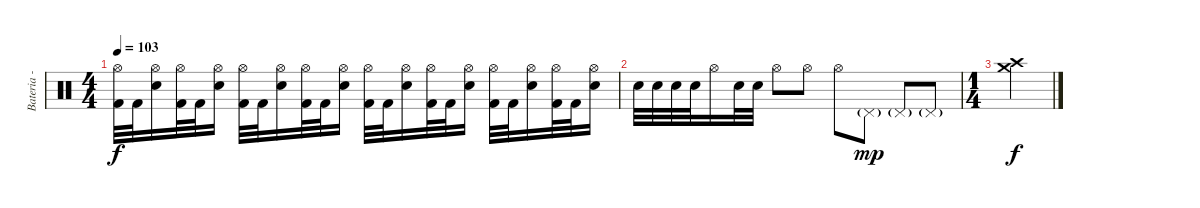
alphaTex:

\track ("Bateria - Larzon" "Bateria - ") {instrument percussion}
\staff {score}
\articulation defaults
\ts (4 4)
\tempo 103
\clef neutral
\ks c
("Kick (hit) 2" "Hi-Hat (open)").32{dy f} "Kick (hit) 2".32 ("Snare (hit) 2" "Hi-Hat (open)").16 ("Kick (hit) 2" "Hi-Hat (open)").32 "Kick (hit) 2".32 ("Snare (hit) 2" "Hi-Hat (open)").16 ("Kick (hit) 2" "Hi-Hat (open)").32 "Kick (hit) 2".32 ("Snare (hit) 2" "Hi-Hat (open)").16 ("Kick (hit) 2" "Hi-Hat (open)").32 "Kick (hit) 2".32 ("Snare (hit) 2" "Hi-Hat (open)").16 ("Kick (hit) 2" "Hi-Hat (open)").32 "Kick (hit) 2".32 ("Snare (hit) 2" "Hi-Hat (open)").16 ("Kick (hit) 2" "Hi-Hat (open)").32 "Kick (hit) 2".32 ("Snare (hit) 2" "Hi-Hat (open)").16 ("Kick (hit) 2" "Hi-Hat (open)").32 "Kick (hit) 2".32 ("Snare (hit) 2" "Hi-Hat (open)").16 ("Kick (hit) 2" "Hi-Hat (open)").32 "Kick (hit) 2".32 ("Snare (hit) 2" "Hi-Hat (open)").16 |
"Snare (hit) 2".32 "Snare (hit) 2".32 "Snare (hit) 2".32 "Snare (hit) 2".32 "Hi-Hat (open)".16 "Snare (hit) 2".32 "Snare (hit) 2".32 "Hi-Hat (open)".8 "Hi-Hat (open)".8 "Hi-Hat (open)".8 "Pedal Hi-Hat (hit)"{g}.8{dy mp} "Pedal Hi-Hat (hit)"{g}.8 "Pedal Hi-Hat (hit)"{g}.8 |
\ts (1 4)
("Crash medium (hit)" "Crash high (hit)").4{dy f}
